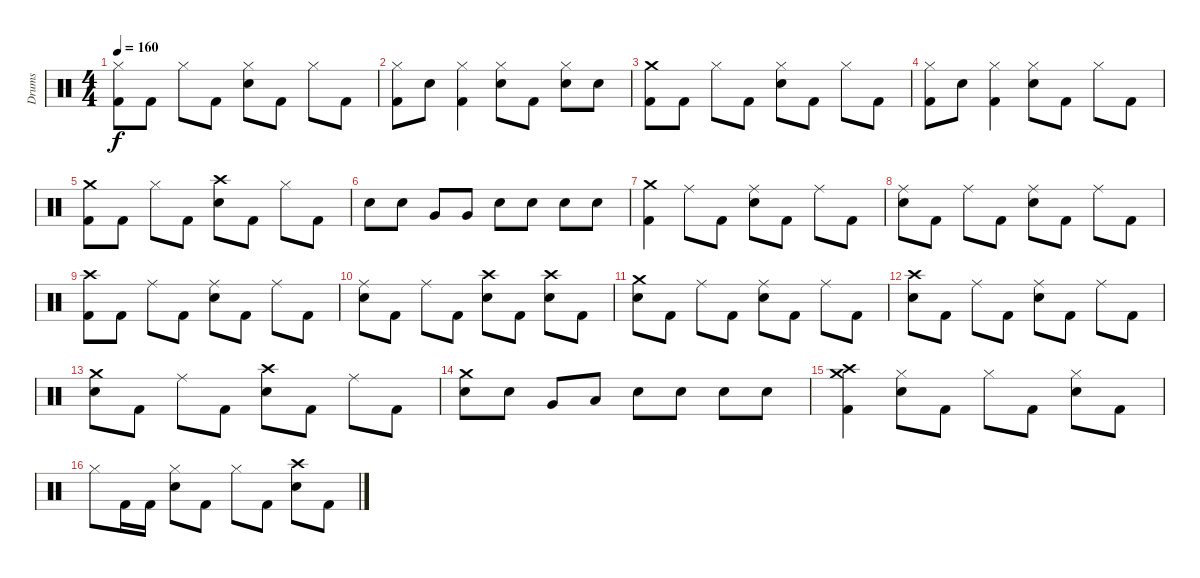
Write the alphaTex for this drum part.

\track ("Drums" "Drums") {instrument percussion}
\staff {score}
\articulation defaults
\ts (4 4)
\tempo 160
\clef neutral
\ks c
("Hi-Hat (closed)" "Kick (hit) 2").8{dy f} "Kick (hit) 2".8 "Hi-Hat (closed)".8 "Kick (hit) 2".8 ("Hi-Hat (closed)" "Snare (hit) 2").8 "Kick (hit) 2".8 "Hi-Hat (closed)".8 "Kick (hit) 2".8 |
("Hi-Hat (closed)" "Kick (hit) 2").8 "Snare (hit) 2".8 ("Hi-Hat (closed)" "Kick (hit) 2").4 ("Hi-Hat (closed)" "Snare (hit) 2").8 "Kick (hit) 2".8 ("Hi-Hat (closed)" "Snare (hit) 2").8 "Snare (hit) 2".8 |
("Crash medium (hit)" "Kick (hit) 2").8 "Kick (hit) 2".8 "Hi-Hat (closed)".8 "Kick (hit) 2".8 ("Hi-Hat (closed)" "Snare (hit) 2").8 "Kick (hit) 2".8 "Hi-Hat (closed)".8 "Kick (hit) 2".8 |
("Hi-Hat (closed)" "Kick (hit) 2").8 "Snare (hit) 2".8 ("Hi-Hat (closed)" "Kick (hit) 2").4 ("Hi-Hat (closed)" "Snare (hit) 2").8 "Kick (hit) 2".8 "Hi-Hat (closed)".8 "Kick (hit) 2".8 |
("Crash medium (hit)" "Kick (hit) 2").8 "Kick (hit) 2".8 "Hi-Hat (closed)".8 "Kick (hit) 2".8 ("Crash high (hit)" "Snare (hit) 2").8 "Kick (hit) 2".8 "Hi-Hat (closed)".8 "Kick (hit) 2".8 |
"Snare (hit) 2".8 "Snare (hit) 2".8 "Very Low Tom (hit)".8 "Very Low Tom (hit)".8 "Snare (hit) 2".8 "Snare (hit) 2".8 "Snare (hit) 2".8 "Snare (hit) 2".8 |
("Crash medium (hit)" "Kick (hit) 2").4 "Ride (middle)".8 "Kick (hit) 2".8 ("Ride (middle)" "Snare (hit) 2").8 "Kick (hit) 2".8 "Ride (middle)".8 "Kick (hit) 2".8 |
("Ride (middle)" "Snare (hit) 2").8 "Kick (hit) 2".8 "Ride (middle)".8 "Kick (hit) 2".8 ("Ride (middle)" "Snare (hit) 2").8 "Kick (hit) 2".8 "Ride (middle)".8 "Kick (hit) 2".8 |
("Crash high (hit)" "Kick (hit) 2").8 "Kick (hit) 2".8 "Ride (middle)".8 "Kick (hit) 2".8 ("Ride (middle)" "Snare (hit) 2").8 "Kick (hit) 2".8 "Ride (middle)".8 "Kick (hit) 2".8 |
("Ride (middle)" "Snare (hit) 2").8 "Kick (hit) 2".8 "Ride (middle)".8 "Kick (hit) 2".8 ("Crash high (hit)" "Snare (hit) 2").8 "Kick (hit) 2".8 ("Crash high (hit)" "Snare (hit) 2").8 "Kick (hit) 2".8 |
("Crash medium (hit)" "Snare (hit) 2").8 "Kick (hit) 2".8 "Ride (middle)".8 "Kick (hit) 2".8 ("Ride (middle)" "Snare (hit) 2").8 "Kick (hit) 2".8 "Ride (middle)".8 "Kick (hit) 2".8 |
("Crash high (hit)" "Snare (hit) 2").8 "Kick (hit) 2".8 "Ride (middle)".8 "Kick (hit) 2".8 ("Ride (middle)" "Snare (hit) 2").8 "Kick (hit) 2".8 "Ride (middle)".8 "Kick (hit) 2".8 |
("Crash medium (hit)" "Snare (hit) 2").8 "Kick (hit) 2".8 "Ride (middle)".8 "Kick (hit) 2".8 ("Crash high (hit)" "Snare (hit) 2").8 "Kick (hit) 2".8 "Ride (middle)".8 "Kick (hit) 2".8 |
("Crash medium (hit)" "Snare (hit) 2").8 "Snare (hit) 2".8 "Very Low Tom (hit)".8 "Low Floor Tom (hit)".8 "Snare (hit) 2".8 "Snare (hit) 2".8 "Snare (hit) 2".8 "Snare (hit) 2".8 |
("Crash medium (hit)" "Crash high (hit)" "Kick (hit) 2").4 ("Hi-Hat (closed)" "Snare (hit) 2").8 "Kick (hit) 2".8 "Hi-Hat (closed)".8 "Kick (hit) 2".8 ("Hi-Hat (closed)" "Snare (hit) 2").8 "Kick (hit) 2".8 |
"Hi-Hat (closed)".8 "Kick (hit) 2".16 "Kick (hit) 2".16 ("Hi-Hat (closed)" "Snare (hit) 2").8 "Kick (hit) 2".8 "Hi-Hat (closed)".8 "Kick (hit) 2".8 ("Crash high (hit)" "Snare (hit) 2").8 "Kick (hit) 2".8
